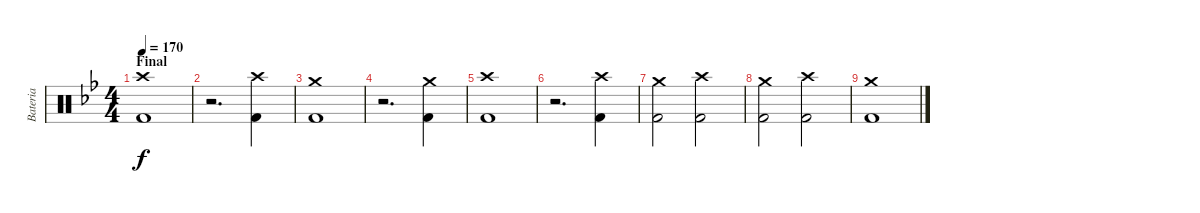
\track ("Bateria" "Bateria") {instrument percussion}
\staff {score}
\articulation defaults
\ts (4 4)
\section ("" "Final")
\tempo 170
\clef neutral
\ks gminor
("Crash high (hit)" "Kick (hit) 2").1{dy f} |
r.2{d} ("Crash high (hit)" "Kick (hit) 2").4 |
("Crash medium (hit)" "Kick (hit) 2").1 |
r.2{d} ("Crash medium (hit)" "Kick (hit) 2").4 |
("Crash high (hit)" "Kick (hit) 2").1 |
r.2{d} ("Crash high (hit)" "Kick (hit) 2").4 |
("Crash medium (hit)" "Kick (hit) 2").2 ("Crash high (hit)" "Kick (hit) 2").2 |
("Crash medium (hit)" "Kick (hit) 2").2 ("Crash high (hit)" "Kick (hit) 2").2 |
("Crash medium (hit)" "Kick (hit) 2").1
